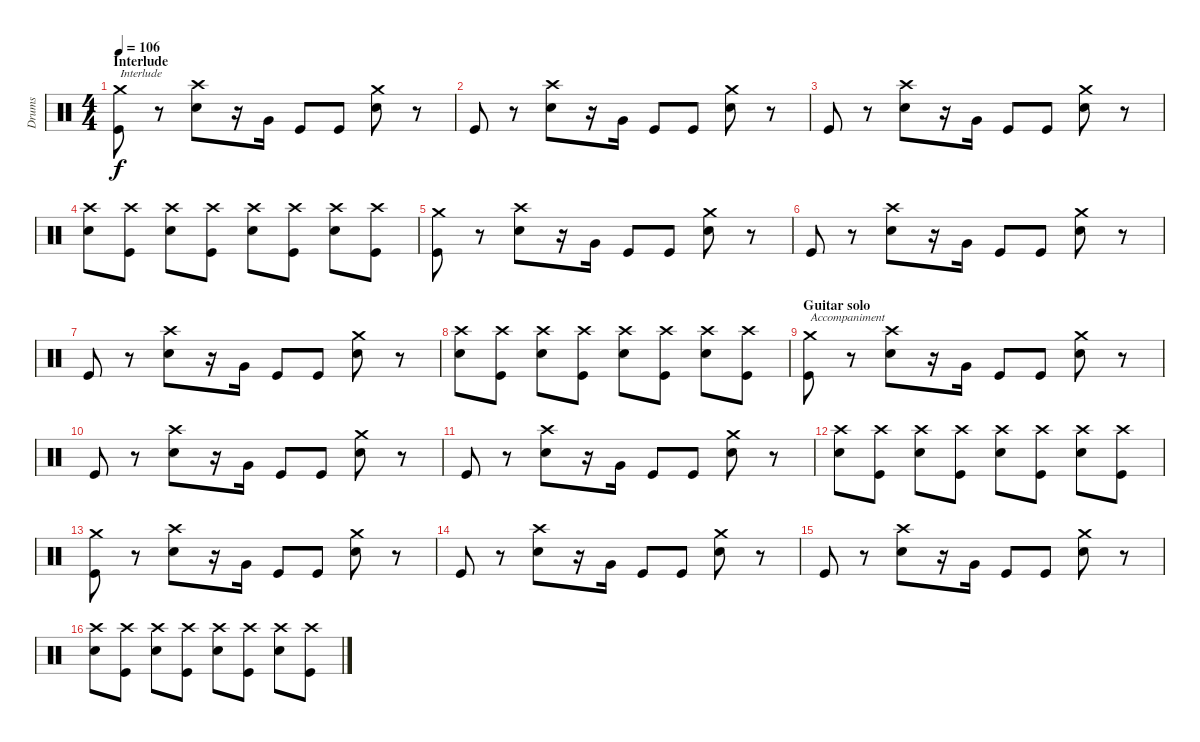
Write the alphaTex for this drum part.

\track ("Drums" "Drums") {instrument percussion}
\staff {score}
\articulation defaults
\ts (4 4)
\section ("" "Interlude")
\tempo 106
\clef neutral
\ks c
("Kick (hit)" "Crash medium (hit)").8{txt "Interlude" dy f} r.8 ("Electric Snare (hit)" "Crash high (hit)").8 r.16 "Very Low Tom (hit)".16 "Kick (hit)".8 "Kick (hit)".8 ("Electric Snare (hit)" "Crash medium (hit)").8 r.8 |
"Kick (hit)".8 r.8 ("Electric Snare (hit)" "Crash high (hit)").8 r.16 "Very Low Tom (hit)".16 "Kick (hit)".8 "Kick (hit)".8 ("Electric Snare (hit)" "Crash medium (hit)").8 r.8 |
"Kick (hit)".8 r.8 ("Electric Snare (hit)" "Crash high (hit)").8 r.16 "Very Low Tom (hit)".16 "Kick (hit)".8 "Kick (hit)".8 ("Electric Snare (hit)" "Crash medium (hit)").8 r.8 |
("Electric Snare (hit)" "Crash high (hit)").8 ("Kick (hit)" "Crash high (hit)").8 ("Electric Snare (hit)" "Crash high (hit)").8 ("Kick (hit)" "Crash high (hit)").8 ("Electric Snare (hit)" "Crash high (hit)").8 ("Kick (hit)" "Crash high (hit)").8 ("Electric Snare (hit)" "Crash high (hit)").8 ("Kick (hit)" "Crash high (hit)").8 |
("Kick (hit)" "Crash medium (hit)").8 r.8 ("Electric Snare (hit)" "Crash high (hit)").8 r.16 "Very Low Tom (hit)".16 "Kick (hit)".8 "Kick (hit)".8 ("Electric Snare (hit)" "Crash medium (hit)").8 r.8 |
"Kick (hit)".8 r.8 ("Electric Snare (hit)" "Crash high (hit)").8 r.16 "Very Low Tom (hit)".16 "Kick (hit)".8 "Kick (hit)".8 ("Electric Snare (hit)" "Crash medium (hit)").8 r.8 |
"Kick (hit)".8 r.8 ("Electric Snare (hit)" "Crash high (hit)").8 r.16 "Very Low Tom (hit)".16 "Kick (hit)".8 "Kick (hit)".8 ("Electric Snare (hit)" "Crash medium (hit)").8 r.8 |
("Electric Snare (hit)" "Crash high (hit)").8 ("Kick (hit)" "Crash high (hit)").8 ("Electric Snare (hit)" "Crash high (hit)").8 ("Kick (hit)" "Crash high (hit)").8 ("Electric Snare (hit)" "Crash high (hit)").8 ("Kick (hit)" "Crash high (hit)").8 ("Electric Snare (hit)" "Crash high (hit)").8 ("Kick (hit)" "Crash high (hit)").8 |
\section ("" "Guitar solo")
("Kick (hit)" "Crash medium (hit)").8{txt "Accompaniment"} r.8 ("Electric Snare (hit)" "Crash high (hit)").8 r.16 "Very Low Tom (hit)".16 "Kick (hit)".8 "Kick (hit)".8 ("Electric Snare (hit)" "Crash medium (hit)").8 r.8 |
"Kick (hit)".8 r.8 ("Electric Snare (hit)" "Crash high (hit)").8 r.16 "Very Low Tom (hit)".16 "Kick (hit)".8 "Kick (hit)".8 ("Electric Snare (hit)" "Crash medium (hit)").8 r.8 |
"Kick (hit)".8 r.8 ("Electric Snare (hit)" "Crash high (hit)").8 r.16 "Very Low Tom (hit)".16 "Kick (hit)".8 "Kick (hit)".8 ("Electric Snare (hit)" "Crash medium (hit)").8 r.8 |
("Electric Snare (hit)" "Crash high (hit)").8 ("Kick (hit)" "Crash high (hit)").8 ("Electric Snare (hit)" "Crash high (hit)").8 ("Kick (hit)" "Crash high (hit)").8 ("Electric Snare (hit)" "Crash high (hit)").8 ("Kick (hit)" "Crash high (hit)").8 ("Electric Snare (hit)" "Crash high (hit)").8 ("Kick (hit)" "Crash high (hit)").8 |
("Kick (hit)" "Crash medium (hit)").8 r.8 ("Electric Snare (hit)" "Crash high (hit)").8 r.16 "Very Low Tom (hit)".16 "Kick (hit)".8 "Kick (hit)".8 ("Electric Snare (hit)" "Crash medium (hit)").8 r.8 |
"Kick (hit)".8 r.8 ("Electric Snare (hit)" "Crash high (hit)").8 r.16 "Very Low Tom (hit)".16 "Kick (hit)".8 "Kick (hit)".8 ("Electric Snare (hit)" "Crash medium (hit)").8 r.8 |
"Kick (hit)".8 r.8 ("Electric Snare (hit)" "Crash high (hit)").8 r.16 "Very Low Tom (hit)".16 "Kick (hit)".8 "Kick (hit)".8 ("Electric Snare (hit)" "Crash medium (hit)").8 r.8 |
("Electric Snare (hit)" "Crash high (hit)").8 ("Kick (hit)" "Crash high (hit)").8 ("Electric Snare (hit)" "Crash high (hit)").8 ("Kick (hit)" "Crash high (hit)").8 ("Electric Snare (hit)" "Crash high (hit)").8 ("Kick (hit)" "Crash high (hit)").8 ("Electric Snare (hit)" "Crash high (hit)").8 ("Kick (hit)" "Crash high (hit)").8
